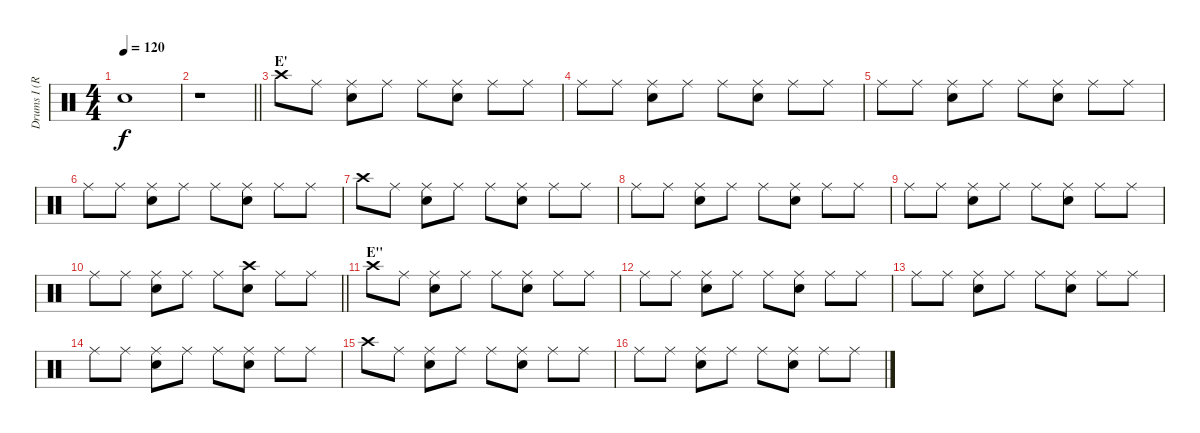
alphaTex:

\track ("Drums I (Ruka)" "Drums I (R") {instrument percussion}
\staff {score}
\articulation defaults
\ts (4 4)
\tempo 120
\clef neutral
\ks c "Snare (hit)"{t}.1{dy f}
|
\barLineRight lightlight
r.1 |
\section ("" "E'")
"Crash high (hit)".8{volume 16} "Ride (middle)".8 ("Ride (middle)" "Snare (hit) 2").8 "Ride (middle)".8 "Ride (middle)".8 ("Ride (middle)" "Snare (hit) 2").8 "Ride (middle)".8 "Ride (middle)".8 |
"Ride (middle)".8 "Ride (middle)".8 ("Ride (middle)" "Snare (hit) 2").8 "Ride (middle)".8 "Ride (middle)".8 ("Ride (middle)" "Snare (hit) 2").8 "Ride (middle)".8 "Ride (middle)".8 |
"Ride (middle)".8 "Ride (middle)".8 ("Ride (middle)" "Snare (hit) 2").8 "Ride (middle)".8 "Ride (middle)".8 ("Ride (middle)" "Snare (hit) 2").8 "Ride (middle)".8 "Ride (middle)".8 |
"Ride (middle)".8 "Ride (middle)".8 ("Ride (middle)" "Snare (hit) 2").8 "Ride (middle)".8 "Ride (middle)".8 ("Ride (middle)" "Snare (hit) 2").8 "Ride (middle)".8 "Ride (middle)".8 |
"Crash high (hit)".8 "Ride (middle)".8 ("Ride (middle)" "Snare (hit) 2").8 "Ride (middle)".8 "Ride (middle)".8 ("Ride (middle)" "Snare (hit) 2").8 "Ride (middle)".8 "Ride (middle)".8 |
"Ride (middle)".8 "Ride (middle)".8 ("Ride (middle)" "Snare (hit) 2").8 "Ride (middle)".8 "Ride (middle)".8 ("Ride (middle)" "Snare (hit) 2").8 "Ride (middle)".8 "Ride (middle)".8 |
"Ride (middle)".8 "Ride (middle)".8 ("Ride (middle)" "Snare (hit) 2").8 "Ride (middle)".8 "Ride (middle)".8 ("Ride (middle)" "Snare (hit) 2").8 "Ride (middle)".8 "Ride (middle)".8 |
\barLineRight lightlight "Ride (middle)".8 "Ride (middle)".8
("Ride (middle)" "Snare (hit) 2").8 "Ride (middle)".8 "Ride (middle)".8 ("Crash high (hit)" "Snare (hit) 2").8 "Ride (middle)".8 "Ride (middle)".8 |
\section ("" "E''")
"Crash high (hit)".8 "Ride (middle)".8 ("Ride (middle)" "Snare (hit) 2").8 "Ride (middle)".8 "Ride (middle)".8 ("Ride (middle)" "Snare (hit) 2").8 "Ride (middle)".8 "Ride (middle)".8 |
"Ride (middle)".8 "Ride (middle)".8 ("Ride (middle)" "Snare (hit) 2").8 "Ride (middle)".8 "Ride (middle)".8 ("Ride (middle)" "Snare (hit) 2").8 "Ride (middle)".8 "Ride (middle)".8 |
"Ride (middle)".8 "Ride (middle)".8 ("Ride (middle)" "Snare (hit) 2").8 "Ride (middle)".8 "Ride (middle)".8 ("Ride (middle)" "Snare (hit) 2").8 "Ride (middle)".8 "Ride (middle)".8 |
"Ride (middle)".8 "Ride (middle)".8 ("Ride (middle)" "Snare (hit) 2").8 "Ride (middle)".8 "Ride (middle)".8 ("Ride (middle)" "Snare (hit) 2").8 "Ride (middle)".8 "Ride (middle)".8 |
"Crash high (hit)".8 "Ride (middle)".8 ("Ride (middle)" "Snare (hit) 2").8 "Ride (middle)".8 "Ride (middle)".8 ("Ride (middle)" "Snare (hit) 2").8 "Ride (middle)".8 "Ride (middle)".8 |
"Ride (middle)".8 "Ride (middle)".8 ("Ride (middle)" "Snare (hit) 2").8 "Ride (middle)".8 "Ride (middle)".8 ("Ride (middle)" "Snare (hit) 2").8 "Ride (middle)".8 "Ride (middle)".8
